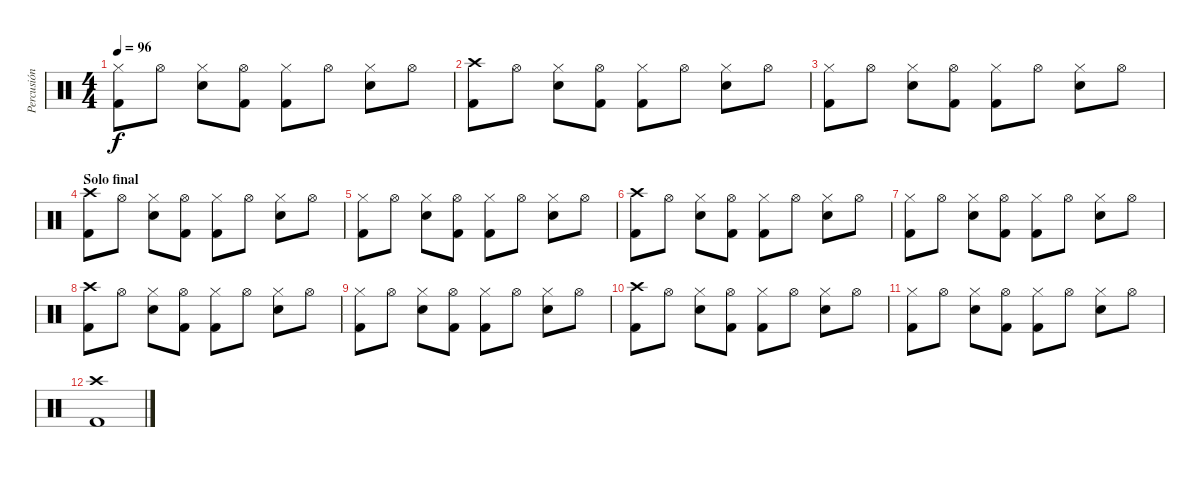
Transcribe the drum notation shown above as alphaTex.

\track ("Percusión" "Percusión") {instrument percussion}
\staff {score}
\articulation defaults
\ts (4 4)
\tempo 96
\clef neutral
\ks c
("Kick (hit) 2" "Hi-Hat (closed)").8{dy f} "Hi-Hat (open)".8 ("Snare (hit) 2" "Hi-Hat (closed)").8 ("Kick (hit) 2" "Hi-Hat (open)").8 ("Kick (hit) 2" "Hi-Hat (closed)").8 "Hi-Hat (open)".8 ("Snare (hit) 2" "Hi-Hat (closed)").8 "Hi-Hat (open)".8 |
("Kick (hit) 2" "Crash high (hit)").8 "Hi-Hat (open)".8 ("Snare (hit) 2" "Hi-Hat (closed)").8 ("Kick (hit) 2" "Hi-Hat (open)").8 ("Kick (hit) 2" "Hi-Hat (closed)").8 "Hi-Hat (open)".8 ("Snare (hit) 2" "Hi-Hat (closed)").8 "Hi-Hat (open)".8 |
("Kick (hit) 2" "Hi-Hat (closed)").8 "Hi-Hat (open)".8 ("Snare (hit) 2" "Hi-Hat (closed)").8 ("Kick (hit) 2" "Hi-Hat (open)").8 ("Kick (hit) 2" "Hi-Hat (closed)").8 "Hi-Hat (open)".8 ("Snare (hit) 2" "Hi-Hat (closed)").8 "Hi-Hat (open)".8 |
\section ("" "Solo final")
("Kick (hit) 2" "Crash high (hit)").8 "Hi-Hat (open)".8 ("Snare (hit) 2" "Hi-Hat (closed)").8 ("Kick (hit) 2" "Hi-Hat (open)").8 ("Kick (hit) 2" "Hi-Hat (closed)").8 "Hi-Hat (open)".8 ("Snare (hit) 2" "Hi-Hat (closed)").8 "Hi-Hat (open)".8 |
("Kick (hit) 2" "Hi-Hat (closed)").8 "Hi-Hat (open)".8 ("Snare (hit) 2" "Hi-Hat (closed)").8 ("Kick (hit) 2" "Hi-Hat (open)").8 ("Kick (hit) 2" "Hi-Hat (closed)").8 "Hi-Hat (open)".8 ("Snare (hit) 2" "Hi-Hat (closed)").8 "Hi-Hat (open)".8 |
("Kick (hit) 2" "Crash high (hit)").8 "Hi-Hat (open)".8 ("Snare (hit) 2" "Hi-Hat (closed)").8 ("Kick (hit) 2" "Hi-Hat (open)").8 ("Kick (hit) 2" "Hi-Hat (closed)").8 "Hi-Hat (open)".8 ("Snare (hit) 2" "Hi-Hat (closed)").8 "Hi-Hat (open)".8 |
("Kick (hit) 2" "Hi-Hat (closed)").8 "Hi-Hat (open)".8 ("Snare (hit) 2" "Hi-Hat (closed)").8 ("Kick (hit) 2" "Hi-Hat (open)").8 ("Kick (hit) 2" "Hi-Hat (closed)").8 "Hi-Hat (open)".8 ("Snare (hit) 2" "Hi-Hat (closed)").8 "Hi-Hat (open)".8 |
("Kick (hit) 2" "Crash high (hit)").8 "Hi-Hat (open)".8 ("Snare (hit) 2" "Hi-Hat (closed)").8 ("Kick (hit) 2" "Hi-Hat (open)").8 ("Kick (hit) 2" "Hi-Hat (closed)").8 "Hi-Hat (open)".8 ("Snare (hit) 2" "Hi-Hat (closed)").8 "Hi-Hat (open)".8 |
("Kick (hit) 2" "Hi-Hat (closed)").8 "Hi-Hat (open)".8 ("Snare (hit) 2" "Hi-Hat (closed)").8 ("Kick (hit) 2" "Hi-Hat (open)").8 ("Kick (hit) 2" "Hi-Hat (closed)").8 "Hi-Hat (open)".8 ("Snare (hit) 2" "Hi-Hat (closed)").8 "Hi-Hat (open)".8 |
("Kick (hit) 2" "Crash high (hit)").8 "Hi-Hat (open)".8 ("Snare (hit) 2" "Hi-Hat (closed)").8 ("Kick (hit) 2" "Hi-Hat (open)").8 ("Kick (hit) 2" "Hi-Hat (closed)").8 "Hi-Hat (open)".8 ("Snare (hit) 2" "Hi-Hat (closed)").8 "Hi-Hat (open)".8 |
("Kick (hit) 2" "Hi-Hat (closed)").8 "Hi-Hat (open)".8 ("Snare (hit) 2" "Hi-Hat (closed)").8 ("Kick (hit) 2" "Hi-Hat (open)").8 ("Kick (hit) 2" "Hi-Hat (closed)").8 "Hi-Hat (open)".8 ("Snare (hit) 2" "Hi-Hat (closed)").8 "Hi-Hat (open)".8 |
("Kick (hit) 2" "Crash high (hit)").1
